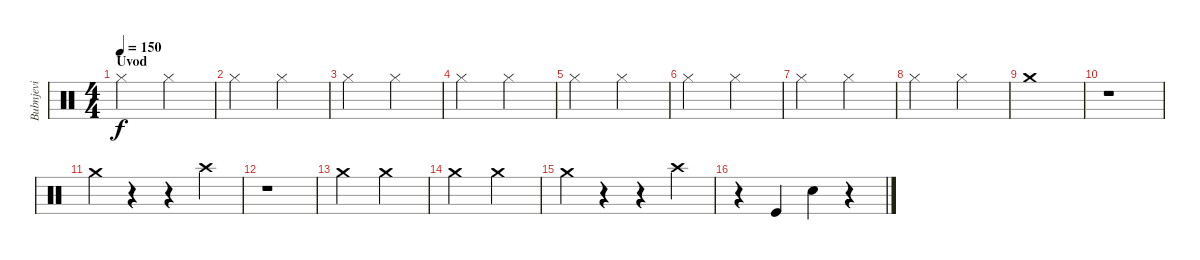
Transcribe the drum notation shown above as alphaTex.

\track ("Bubnjevi" "Bubnjevi") {instrument percussion}
\staff {score}
\articulation defaults
\ts (4 4)
\section ("" "Uvod")
\tempo 150
\clef neutral
\ks c "Hi-Hat (closed)".2{dy f} "Hi-Hat (closed)".2
|
"Hi-Hat (closed)".2 "Hi-Hat (closed)".2 |
"Hi-Hat (closed)".2 "Hi-Hat (closed)".2 |
"Hi-Hat (closed)".2 "Hi-Hat (closed)".2 |
"Hi-Hat (closed)".2 "Hi-Hat (closed)".2 |
"Hi-Hat (closed)".2 "Hi-Hat (closed)".2 |
"Hi-Hat (closed)".2 "Hi-Hat (closed)".2 |
"Hi-Hat (closed)".2 "Hi-Hat (closed)".2 |
"Crash medium (hit)".1 |
r.1 |
"Crash medium (hit)".4 r.4 r.4 "Crash high (hit)".4 |
r.1 |
"Crash medium (hit)".2 "Crash medium (hit)".2 |
"Crash medium (hit)".2 "Crash medium (hit)".2 |
"Crash medium (hit)".4 r.4 r.4 "Crash high (hit)".4 |
r.4 "Kick (hit)".4 "Snare (hit) 2".4 r.4
